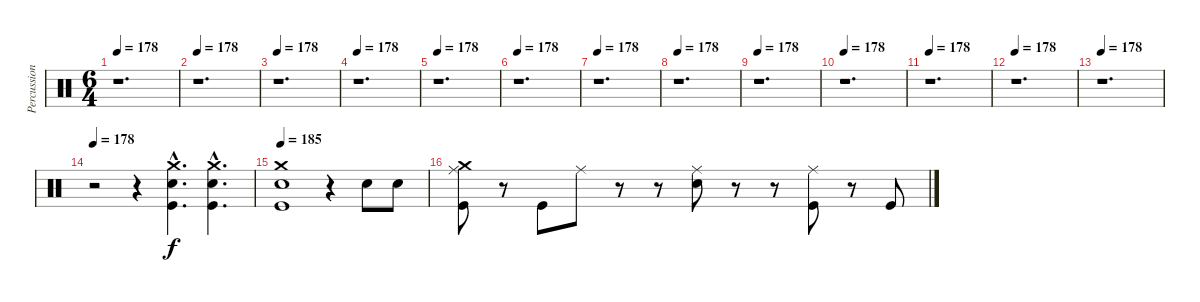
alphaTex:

\track ("Percussion" "Percussion") {instrument percussion}
\staff {score}
\articulation defaults
\ts (6 4)
\tempo 178
\clef neutral
\ks c
r.1{d dy f} |
\tempo 178
r.1{d} |
\tempo 178
r.1{d} |
\tempo 178
r.1{d} |
\tempo 178
r.1{d} |
\tempo 178
r.1{d} |
\tempo 178
r.1{d} |
\tempo 178
r.1{d} |
\tempo 178
r.1{d} |
\tempo 178
r.1{d} |
\tempo 178
r.1{d} |
\tempo 178
r.1{d} |
\tempo 178
r.1{d} |
\tempo 178
r.2 r.4 ("Crash medium (hit)"{hac} "Electric Snare (hit)"{hac} "Kick (hit)"{hac}).4{d} ("Crash medium (hit)"{hac} "Electric Snare (hit)"{hac} "Kick (hit)"{hac}).4{d} |
\tempo 185
("Crash medium (hit)" "Electric Snare (hit)" "Kick (hit)").1 r.4 "Electric Snare (hit)".8 "Electric Snare (hit)".8 |
("Crash medium (hit)" "Ride (middle)" "Kick (hit)").8 r.8 "Kick (hit)".8 "Ride (middle)".8 r.8 r.8 ("Ride (middle)" "Electric Snare (hit)").8 r.8 r.8 ("Ride (middle)" "Kick (hit)").8 r.8 "Kick (hit)".8
